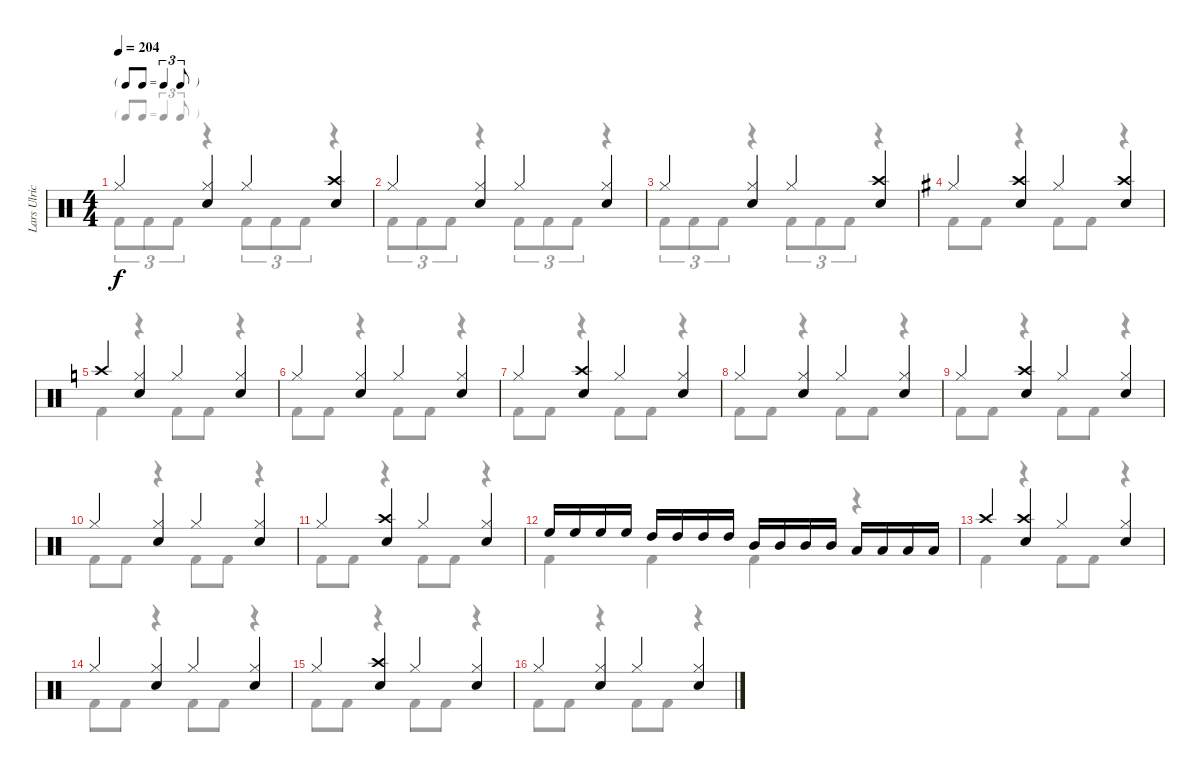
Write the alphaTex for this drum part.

\track ("Lars Ulrich" "Lars Ulric") {instrument percussion}
\staff {score}
\articulation defaults
\voice
\ts (4 4)
\tf triplet8th
\tempo 204
\clef neutral
\ks c "Hi-Hat (closed)".4{dy f}
("Hi-Hat (closed)" "Snare (hit) 2").4 "Hi-Hat (closed)".4 ("Crash high (hit)" "Snare (hit) 2").4 |
"Hi-Hat (closed)".4 ("Hi-Hat (closed)" "Snare (hit) 2").4 "Hi-Hat (closed)".4 ("Hi-Hat (closed)" "Snare (hit) 2").4 |
"Hi-Hat (closed)".4 ("Hi-Hat (closed)" "Snare (hit) 2").4 "Hi-Hat (closed)".4 ("Crash high (hit)" "Snare (hit) 2").4 |
\ks eminor "Hi-Hat (closed)".4
("Crash high (hit)" "Snare (hit) 2").4 "Hi-Hat (closed)".4 ("Crash high (hit)" "Snare (hit) 2").4 |
\ks c "Crash high (hit)".4
("Hi-Hat (closed)" "Snare (hit) 2").4 "Hi-Hat (closed)".4 ("Hi-Hat (closed)" "Snare (hit) 2").4 |
"Hi-Hat (closed)".4 ("Hi-Hat (closed)" "Snare (hit) 2").4 "Hi-Hat (closed)".4 ("Hi-Hat (closed)" "Snare (hit) 2").4 |
"Hi-Hat (closed)".4 ("Crash high (hit)" "Snare (hit) 2").4 "Hi-Hat (closed)".4 ("Hi-Hat (closed)" "Snare (hit) 2").4 |
"Hi-Hat (closed)".4 ("Hi-Hat (closed)" "Snare (hit) 2").4 "Hi-Hat (closed)".4 ("Hi-Hat (closed)" "Snare (hit) 2").4 |
"Hi-Hat (closed)".4 ("Crash high (hit)" "Snare (hit) 2").4 "Hi-Hat (closed)".4 ("Hi-Hat (closed)" "Snare (hit) 2").4 |
"Hi-Hat (closed)".4 ("Hi-Hat (closed)" "Snare (hit) 2").4 "Hi-Hat (closed)".4 ("Hi-Hat (closed)" "Snare (hit) 2").4 |
"Hi-Hat (closed)".4 ("Crash high (hit)" "Snare (hit) 2").4 "Hi-Hat (closed)".4 ("Hi-Hat (closed)" "Snare (hit) 2").4 |
"High Floor Tom (hit)".16 "High Floor Tom (hit)".16 "High Floor Tom (hit)".16 "High Floor Tom (hit)".16 "High Tom (hit)".16 "High Tom (hit)".16 "High Tom (hit)".16 "High Tom (hit)".16 "Mid Tom (hit)".16 "Mid Tom (hit)".16 "Mid Tom (hit)".16 "Mid Tom (hit)".16 "Low Tom (hit)".16 "Low Tom (hit)".16 "Low Tom (hit)".16 "Low Tom (hit)".16 |
"Crash high (hit)".4 ("Crash high (hit)" "Snare (hit) 2").4 "Hi-Hat (closed)".4 ("Hi-Hat (closed)" "Snare (hit) 2").4 |
"Hi-Hat (closed)".4 ("Hi-Hat (closed)" "Snare (hit) 2").4 "Hi-Hat (closed)".4 ("Hi-Hat (closed)" "Snare (hit) 2").4 |
"Hi-Hat (closed)".4 ("Crash high (hit)" "Snare (hit) 2").4 "Hi-Hat (closed)".4 ("Hi-Hat (closed)" "Snare (hit) 2").4 |
"Hi-Hat (closed)".4 ("Hi-Hat (closed)" "Snare (hit) 2").4 "Hi-Hat (closed)".4 ("Hi-Hat (closed)" "Snare (hit) 2").4
\voice
\clef neutral
\ottava regular
\simile none
\ks c "Kick (hit) 2".8{tu (3 2) dy f} "Kick (hit) 2".8{tu (3 2)} "Kick (hit) 2".8{tu (3 2)}
r.4 "Kick (hit) 2".8{tu (3 2)} "Kick (hit) 2".8{tu (3 2)} "Kick (hit) 2".8{tu (3 2)} r.4 |
"Kick (hit) 2".8{tu (3 2)} "Kick (hit) 2".8{tu (3 2)} "Kick (hit) 2".8{tu (3 2)} r.4 "Kick (hit) 2".8{tu (3 2)} "Kick (hit) 2".8{tu (3 2)} "Kick (hit) 2".8{tu (3 2)} r.4 |
"Kick (hit) 2".8{tu (3 2)} "Kick (hit) 2".8{tu (3 2)} "Kick (hit) 2".8{tu (3 2)} r.4 "Kick (hit) 2".8{tu (3 2)} "Kick (hit) 2".8{tu (3 2)} "Kick (hit) 2".8{tu (3 2)} r.4 |
\ks eminor "Kick (hit) 2".8 "Kick (hit) 2".8
r.4 "Kick (hit) 2".8 "Kick (hit) 2".8 r.4 |
\ks c "Kick (hit) 2".4
r.4 "Kick (hit) 2".8 "Kick (hit) 2".8 r.4 |
"Kick (hit) 2".8 "Kick (hit) 2".8 r.4 "Kick (hit) 2".8 "Kick (hit) 2".8 r.4 |
"Kick (hit) 2".8 "Kick (hit) 2".8 r.4 "Kick (hit) 2".8 "Kick (hit) 2".8 r.4 |
"Kick (hit) 2".8 "Kick (hit) 2".8 r.4 "Kick (hit) 2".8 "Kick (hit) 2".8 r.4 |
"Kick (hit) 2".8 "Kick (hit) 2".8 r.4 "Kick (hit) 2".8 "Kick (hit) 2".8 r.4 |
"Kick (hit) 2".8 "Kick (hit) 2".8 r.4 "Kick (hit) 2".8 "Kick (hit) 2".8 r.4 |
"Kick (hit) 2".8 "Kick (hit) 2".8 r.4 "Kick (hit) 2".8 "Kick (hit) 2".8 r.4 |
"Kick (hit) 2".4 "Kick (hit) 2".4 "Kick (hit) 2".4 r.4 |
"Kick (hit) 2".4 r.4 "Kick (hit) 2".8 "Kick (hit) 2".8 r.4 |
"Kick (hit) 2".8 "Kick (hit) 2".8 r.4 "Kick (hit) 2".8 "Kick (hit) 2".8 r.4 |
"Kick (hit) 2".8 "Kick (hit) 2".8 r.4 "Kick (hit) 2".8 "Kick (hit) 2".8 r.4 |
"Kick (hit) 2".8 "Kick (hit) 2".8 r.4 "Kick (hit) 2".8 "Kick (hit) 2".8 r.4
